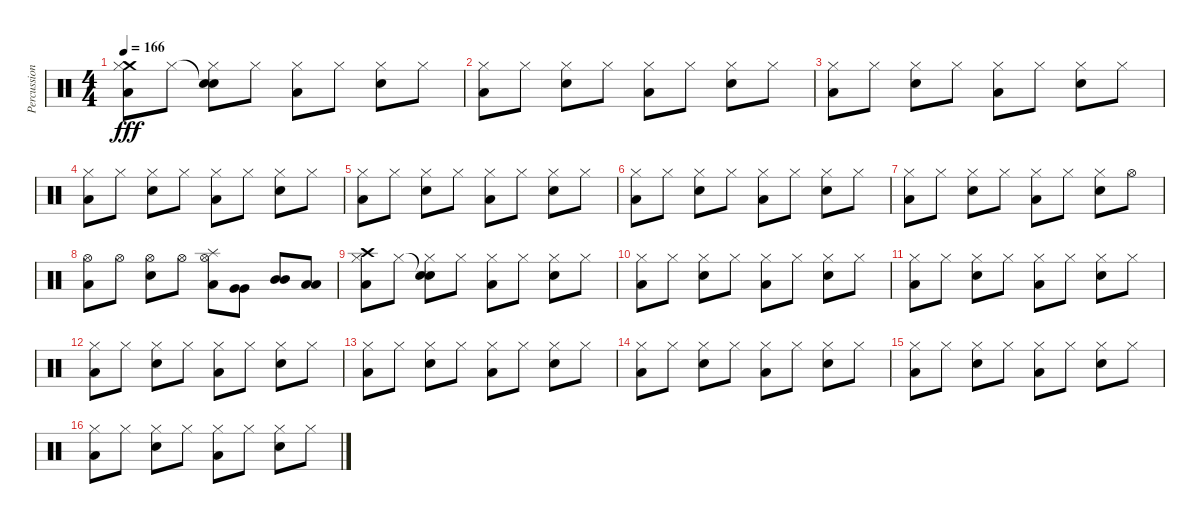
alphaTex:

\track ("Percussions" "Percussion") {instrument percussion}
\staff {score}
\articulation defaults
\ts (4 4)
\tempo 166
\clef neutral
\ks c
("Crash medium (hit)" "Low Tom (hit)" "Hi-Hat (closed)").8{dy fff} "Hi-Hat (closed)".8 ("Snare (hit)"{t} "Snare (hit) 2" "Hi-Hat (closed)").8 "Hi-Hat (closed)".8 ("Low Tom (hit)" "Hi-Hat (closed)").8 "Hi-Hat (closed)".8 ("Snare (hit) 2" "Hi-Hat (closed)").8 "Hi-Hat (closed)".8 |
("Low Tom (hit)" "Hi-Hat (closed)").8 "Hi-Hat (closed)".8 ("Snare (hit) 2" "Hi-Hat (closed)").8 "Hi-Hat (closed)".8 ("Low Tom (hit)" "Hi-Hat (closed)").8 "Hi-Hat (closed)".8 ("Snare (hit) 2" "Hi-Hat (closed)").8 "Hi-Hat (closed)".8 |
("Low Tom (hit)" "Hi-Hat (closed)").8 "Hi-Hat (closed)".8 ("Snare (hit) 2" "Hi-Hat (closed)").8 "Hi-Hat (closed)".8 ("Low Tom (hit)" "Hi-Hat (closed)").8 "Hi-Hat (closed)".8 ("Snare (hit) 2" "Hi-Hat (closed)").8 "Hi-Hat (closed)".8 |
("Low Tom (hit)" "Hi-Hat (closed)").8 "Hi-Hat (closed)".8 ("Snare (hit) 2" "Hi-Hat (closed)").8 "Hi-Hat (closed)".8 ("Low Tom (hit)" "Hi-Hat (closed)").8 "Hi-Hat (closed)".8 ("Snare (hit) 2" "Hi-Hat (closed)").8 "Hi-Hat (closed)".8 |
("Low Tom (hit)" "Hi-Hat (closed)").8 "Hi-Hat (closed)".8 ("Snare (hit) 2" "Hi-Hat (closed)").8 "Hi-Hat (closed)".8 ("Low Tom (hit)" "Hi-Hat (closed)").8 "Hi-Hat (closed)".8 ("Snare (hit) 2" "Hi-Hat (closed)").8 "Hi-Hat (closed)".8 |
("Low Tom (hit)" "Hi-Hat (closed)").8 "Hi-Hat (closed)".8 ("Snare (hit) 2" "Hi-Hat (closed)").8 "Hi-Hat (closed)".8 ("Low Tom (hit)" "Hi-Hat (closed)").8 "Hi-Hat (closed)".8 ("Snare (hit) 2" "Hi-Hat (closed)").8 "Hi-Hat (closed)".8 |
("Low Tom (hit)" "Hi-Hat (closed)").8 "Hi-Hat (closed)".8 ("Snare (hit) 2" "Hi-Hat (closed)").8 "Hi-Hat (closed)".8 ("Low Tom (hit)" "Hi-Hat (closed)").8 "Hi-Hat (closed)".8 ("Snare (hit) 2" "Hi-Hat (closed)").8 "Hi-Hat (open)".8 |
("Low Tom (hit)" "Hi-Hat (open)").8 "Hi-Hat (open)".8 ("Snare (hit) 2" "Hi-Hat (open)").8 "Hi-Hat (open)".8 ("Splash (hit)" "Low Tom (hit)" "Hi-Hat (open)").8 ("Very Low Tom (hit)" "Very Low Tom (hit)").8 ("Mid Tom (hit)" "Mid Tom (hit)").8 ("Low Tom (hit)" "Low Tom (hit)").8 |
("Crash high (hit)" "Low Tom (hit)" "Hi-Hat (closed)").8 "Hi-Hat (closed)".8 ("Snare (hit)"{t} "Snare (hit) 2" "Hi-Hat (closed)").8 "Hi-Hat (closed)".8 ("Low Tom (hit)" "Hi-Hat (closed)").8 "Hi-Hat (closed)".8 ("Snare (hit) 2" "Hi-Hat (closed)").8 "Hi-Hat (closed)".8 |
("Low Tom (hit)" "Hi-Hat (closed)").8 "Hi-Hat (closed)".8 ("Snare (hit) 2" "Hi-Hat (closed)").8 "Hi-Hat (closed)".8 ("Low Tom (hit)" "Hi-Hat (closed)").8 "Hi-Hat (closed)".8 ("Snare (hit) 2" "Hi-Hat (closed)").8 "Hi-Hat (closed)".8 |
("Low Tom (hit)" "Hi-Hat (closed)").8 "Hi-Hat (closed)".8 ("Snare (hit) 2" "Hi-Hat (closed)").8 "Hi-Hat (closed)".8 ("Low Tom (hit)" "Hi-Hat (closed)").8 "Hi-Hat (closed)".8 ("Snare (hit) 2" "Hi-Hat (closed)").8 "Hi-Hat (closed)".8 |
("Low Tom (hit)" "Hi-Hat (closed)").8 "Hi-Hat (closed)".8 ("Snare (hit) 2" "Hi-Hat (closed)").8 "Hi-Hat (closed)".8 ("Low Tom (hit)" "Hi-Hat (closed)").8 "Hi-Hat (closed)".8 ("Snare (hit) 2" "Hi-Hat (closed)").8 "Hi-Hat (closed)".8 |
("Low Tom (hit)" "Hi-Hat (closed)").8 "Hi-Hat (closed)".8 ("Snare (hit) 2" "Hi-Hat (closed)").8 "Hi-Hat (closed)".8 ("Low Tom (hit)" "Hi-Hat (closed)").8 "Hi-Hat (closed)".8 ("Snare (hit) 2" "Hi-Hat (closed)").8 "Hi-Hat (closed)".8 |
("Low Tom (hit)" "Hi-Hat (closed)").8 "Hi-Hat (closed)".8 ("Snare (hit) 2" "Hi-Hat (closed)").8 "Hi-Hat (closed)".8 ("Low Tom (hit)" "Hi-Hat (closed)").8 "Hi-Hat (closed)".8 ("Snare (hit) 2" "Hi-Hat (closed)").8 "Hi-Hat (closed)".8 |
("Low Tom (hit)" "Hi-Hat (closed)").8 "Hi-Hat (closed)".8 ("Snare (hit) 2" "Hi-Hat (closed)").8 "Hi-Hat (closed)".8 ("Low Tom (hit)" "Hi-Hat (closed)").8 "Hi-Hat (closed)".8 ("Snare (hit) 2" "Hi-Hat (closed)").8 "Hi-Hat (closed)".8 |
("Low Tom (hit)" "Hi-Hat (closed)").8 "Hi-Hat (closed)".8 ("Snare (hit) 2" "Hi-Hat (closed)").8 "Hi-Hat (closed)".8 ("Low Tom (hit)" "Hi-Hat (closed)").8 "Hi-Hat (closed)".8 ("Snare (hit) 2" "Hi-Hat (closed)").8 "Hi-Hat (closed)".8
